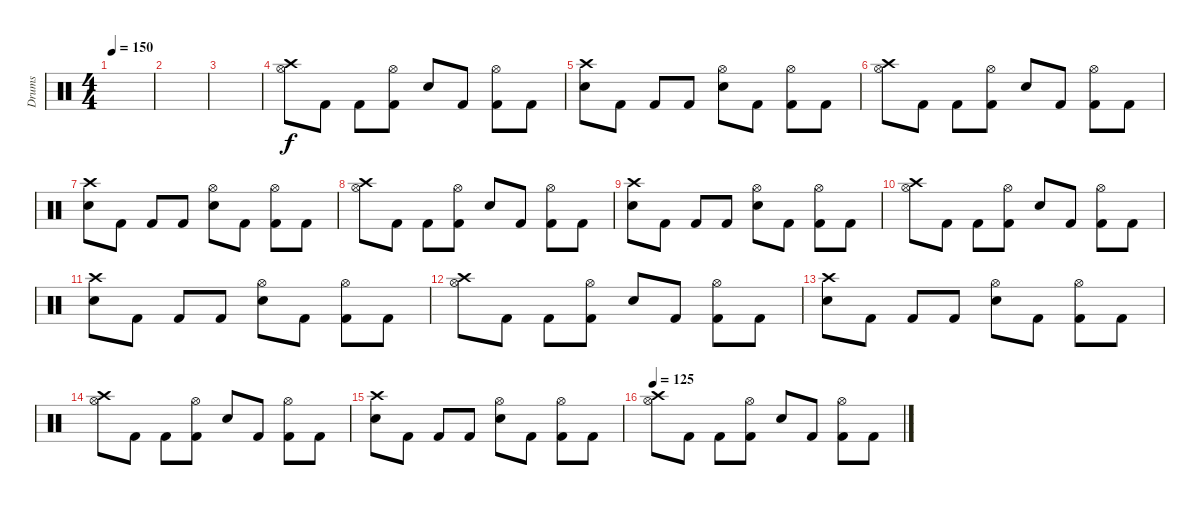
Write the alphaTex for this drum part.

\track ("Drums" "Drums") {instrument percussion}
\staff {score}
\articulation defaults
\ts (4 4)
\tempo 150
\clef neutral
\ks c
|
|
|
("Hi-Hat (open)" "Crash high (hit)").8 "Kick (hit) 2".8 "Kick (hit) 2".8 ("Hi-Hat (open)" "Kick (hit) 2").8 "Snare (hit) 2".8 "Kick (hit) 2".8 ("Hi-Hat (open)" "Kick (hit) 2").8 "Kick (hit) 2".8 |
("Snare (hit) 2" "Crash high (hit)").8 "Kick (hit) 2".8 "Kick (hit) 2".8 "Kick (hit) 2".8 ("Hi-Hat (open)" "Snare (hit) 2").8 "Kick (hit) 2".8 ("Hi-Hat (open)" "Kick (hit) 2").8 "Kick (hit) 2".8 |
("Hi-Hat (open)" "Crash high (hit)").8 "Kick (hit) 2".8 "Kick (hit) 2".8 ("Hi-Hat (open)" "Kick (hit) 2").8 "Snare (hit) 2".8 "Kick (hit) 2".8 ("Hi-Hat (open)" "Kick (hit) 2").8 "Kick (hit) 2".8 |
("Snare (hit) 2" "Crash high (hit)").8 "Kick (hit) 2".8 "Kick (hit) 2".8 "Kick (hit) 2".8 ("Hi-Hat (open)" "Snare (hit) 2").8 "Kick (hit) 2".8 ("Hi-Hat (open)" "Kick (hit) 2").8 "Kick (hit) 2".8 |
("Hi-Hat (open)" "Crash high (hit)").8 "Kick (hit) 2".8 "Kick (hit) 2".8 ("Hi-Hat (open)" "Kick (hit) 2").8 "Snare (hit) 2".8 "Kick (hit) 2".8 ("Hi-Hat (open)" "Kick (hit) 2").8 "Kick (hit) 2".8 |
("Snare (hit) 2" "Crash high (hit)").8 "Kick (hit) 2".8 "Kick (hit) 2".8 "Kick (hit) 2".8 ("Hi-Hat (open)" "Snare (hit) 2").8 "Kick (hit) 2".8 ("Hi-Hat (open)" "Kick (hit) 2").8 "Kick (hit) 2".8 |
("Hi-Hat (open)" "Crash high (hit)").8 "Kick (hit) 2".8 "Kick (hit) 2".8 ("Hi-Hat (open)" "Kick (hit) 2").8 "Snare (hit) 2".8 "Kick (hit) 2".8 ("Hi-Hat (open)" "Kick (hit) 2").8 "Kick (hit) 2".8 |
("Snare (hit) 2" "Crash high (hit)").8 "Kick (hit) 2".8 "Kick (hit) 2".8 "Kick (hit) 2".8 ("Hi-Hat (open)" "Snare (hit) 2").8 "Kick (hit) 2".8 ("Hi-Hat (open)" "Kick (hit) 2").8 "Kick (hit) 2".8 |
("Hi-Hat (open)" "Crash high (hit)").8 "Kick (hit) 2".8 "Kick (hit) 2".8 ("Hi-Hat (open)" "Kick (hit) 2").8 "Snare (hit) 2".8 "Kick (hit) 2".8 ("Hi-Hat (open)" "Kick (hit) 2").8 "Kick (hit) 2".8 |
("Snare (hit) 2" "Crash high (hit)").8 "Kick (hit) 2".8 "Kick (hit) 2".8 "Kick (hit) 2".8 ("Hi-Hat (open)" "Snare (hit) 2").8 "Kick (hit) 2".8 ("Hi-Hat (open)" "Kick (hit) 2").8 "Kick (hit) 2".8 |
("Hi-Hat (open)" "Crash high (hit)").8 "Kick (hit) 2".8 "Kick (hit) 2".8 ("Hi-Hat (open)" "Kick (hit) 2").8 "Snare (hit) 2".8 "Kick (hit) 2".8 ("Hi-Hat (open)" "Kick (hit) 2").8 "Kick (hit) 2".8 |
("Snare (hit) 2" "Crash high (hit)").8 "Kick (hit) 2".8 "Kick (hit) 2".8 "Kick (hit) 2".8 ("Hi-Hat (open)" "Snare (hit) 2").8 "Kick (hit) 2".8 ("Hi-Hat (open)" "Kick (hit) 2").8 "Kick (hit) 2".8 |
\tempo 125
("Hi-Hat (open)" "Crash high (hit)").8 "Kick (hit) 2".8 "Kick (hit) 2".8 ("Hi-Hat (open)" "Kick (hit) 2").8 "Snare (hit) 2".8 "Kick (hit) 2".8 ("Hi-Hat (open)" "Kick (hit) 2").8 "Kick (hit) 2".8
